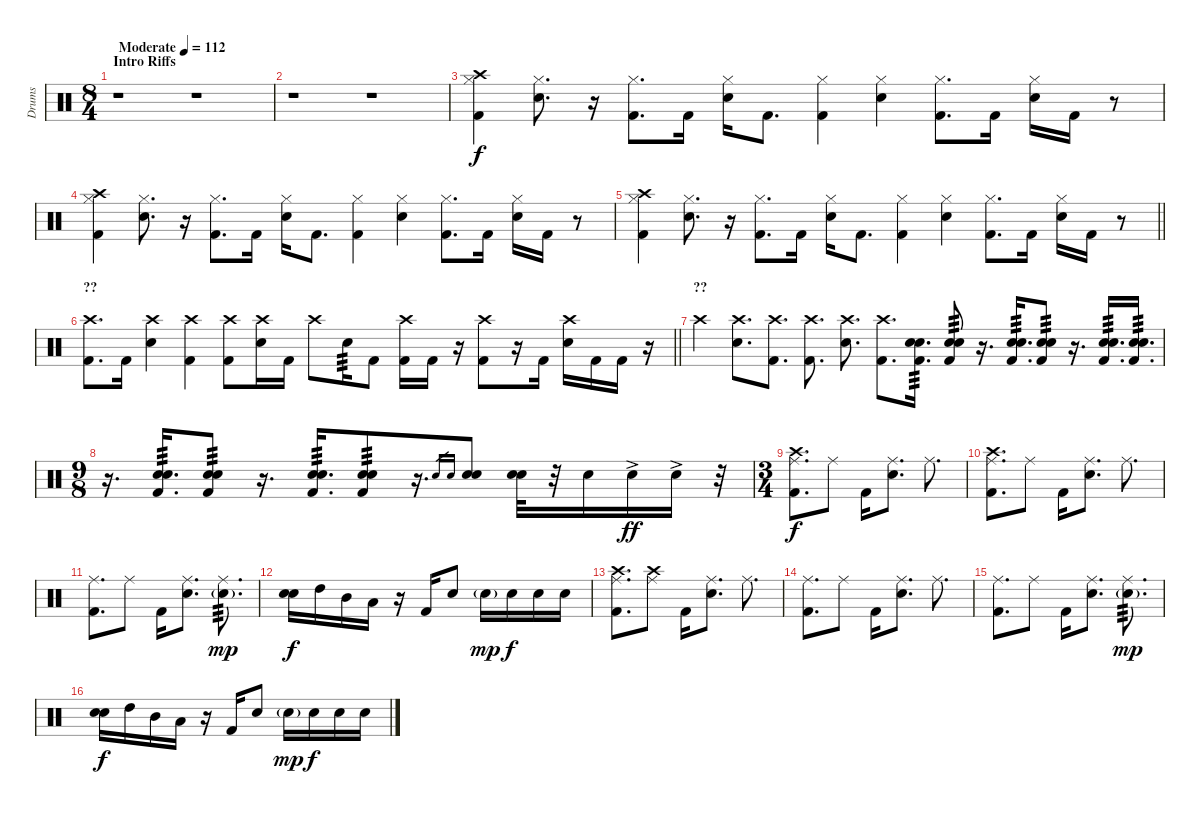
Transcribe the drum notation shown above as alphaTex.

\track ("Drums" "Drums") {instrument percussion}
\staff {score}
\articulation defaults
\ts (8 4)
\section ("" "Intro Riffs")
\tempo (112 "Moderate")
\clef neutral
\ks c
r.1{dy f} r.1 |
r.1 r.1 |
("Hi-Hat (closed)" "Crash high (hit)" "Kick (hit) 2").4 ("Hi-Hat (closed)" "Electric Snare (hit)").8{d} r.16 ("Hi-Hat (closed)" "Kick (hit) 2").8{d} "Kick (hit) 2".16 ("Hi-Hat (closed)" "Electric Snare (hit)").16 "Kick (hit) 2".8{d} ("Hi-Hat (closed)" "Kick (hit) 2").4 ("Hi-Hat (closed)" "Electric Snare (hit)").4 ("Hi-Hat (closed)" "Kick (hit) 2").8{d} "Kick (hit) 2".16 ("Hi-Hat (closed)" "Electric Snare (hit)").16 "Kick (hit) 2".16 r.8 |
("Hi-Hat (closed)" "Crash high (hit)" "Kick (hit) 2").4 ("Hi-Hat (closed)" "Electric Snare (hit)").8{d} r.16 ("Hi-Hat (closed)" "Kick (hit) 2").8{d} "Kick (hit) 2".16 ("Hi-Hat (closed)" "Electric Snare (hit)").16 "Kick (hit) 2".8{d} ("Hi-Hat (closed)" "Kick (hit) 2").4 ("Hi-Hat (closed)" "Electric Snare (hit)").4 ("Hi-Hat (closed)" "Kick (hit) 2").8{d} "Kick (hit) 2".16 ("Hi-Hat (closed)" "Electric Snare (hit)").16 "Kick (hit) 2".16 r.8 |
\barLineRight lightlight
("Hi-Hat (closed)" "Crash high (hit)" "Kick (hit) 2").4 ("Hi-Hat (closed)" "Electric Snare (hit)").8{d} r.16 ("Hi-Hat (closed)" "Kick (hit) 2").8{d} "Kick (hit) 2".16 ("Hi-Hat (closed)" "Electric Snare (hit)").16 "Kick (hit) 2".8{d} ("Hi-Hat (closed)" "Kick (hit) 2").4 ("Hi-Hat (closed)" "Electric Snare (hit)").4 ("Hi-Hat (closed)" "Kick (hit) 2").8{d} "Kick (hit) 2".16 ("Hi-Hat (closed)" "Electric Snare (hit)").16 "Kick (hit) 2".16 r.8 |
\section ("" "??")
\barLineRight lightlight
("Crash high (hit)" "Kick (hit) 2").8{d} "Kick (hit) 2".16 ("Crash high (hit)" "Electric Snare (hit)").4 ("Crash high (hit)" "Kick (hit) 2").4 ("Crash high (hit)" "Kick (hit) 2").8 ("Crash high (hit)" "Electric Snare (hit)").16 "Kick (hit) 2".16 "Crash high (hit)".8 "Electric Snare (hit)".16{tp 3} "Kick (hit) 2".8 ("Crash high (hit)" "Kick (hit) 2").16 "Kick (hit) 2".16 r.16 ("Crash high (hit)" "Kick (hit) 2").8 r.16 "Kick (hit) 2".16 ("Crash high (hit)" "Electric Snare (hit)").16 "Kick (hit) 2".16 "Kick (hit) 2".16 r.16 |
\section ("" "??")
"Crash high (hit)".4 ("Crash high (hit)" "Electric Snare (hit)").8{d} ("Crash high (hit)" "Kick (hit) 2").8{d} ("Crash high (hit)" "Kick (hit) 2").8{d} ("Crash high (hit)" "Electric Snare (hit)").8{d} ("Crash high (hit)" "Kick (hit) 2").8{d} ("Electric Snare (hit)" "Electric Snare (hit)" "Kick (hit) 2").16{d tp 3} ("Electric Snare (hit)" "Electric Snare (hit)" "Kick (hit) 2").8{tp 3} r.16{d} ("Electric Snare (hit)" "Electric Snare (hit)" "Kick (hit) 2").16{d tp 3} ("Electric Snare (hit)" "Electric Snare (hit)" "Kick (hit) 2").8{tp 3} r.16{d} ("Electric Snare (hit)" "Electric Snare (hit)" "Kick (hit) 2").16{d tp 3} ("Electric Snare (hit)" "Electric Snare (hit)" "Kick (hit) 2").16{d tp 3} |
\ts (9 8)
r.16{d} ("Electric Snare (hit)" "Electric Snare (hit)" "Kick (hit) 2").16{d tp 3} ("Electric Snare (hit)" "Electric Snare (hit)" "Kick (hit) 2").8{tp 3} r.16{d} ("Electric Snare (hit)" "Electric Snare (hit)" "Kick (hit) 2").16{d tp 3} ("Electric Snare (hit)" "Electric Snare (hit)" "Kick (hit) 2").8{tp 3} r.16{d} "Electric Snare (hit)".16{gr} "Electric Snare (hit)".16{gr} ("Electric Snare (hit)" "Electric Snare (hit)").8 ("Electric Snare (hit)" "Electric Snare (hit)").32 r.32 "Electric Snare (hit)".16 "Electric Snare (hit)"{ac}.16{dy ff} "Electric Snare (hit)"{ac}.16 r.32 |
\ts (3 4)
("Ride (middle)" "Crash high (hit)" "Kick (hit) 2").8{d dy f} "Ride (middle)".8 "Kick (hit) 2".16 ("Ride (middle)" "Electric Snare (hit)").8{d} "Ride (middle)".8{d} |
("Ride (middle)" "Crash high (hit)" "Kick (hit) 2").8{d} "Ride (middle)".8 "Kick (hit) 2".16 ("Ride (middle)" "Electric Snare (hit)").8{d} "Ride (middle)".8{d} |
("Ride (middle)" "Kick (hit) 2").8{d} "Ride (middle)".8 "Kick (hit) 2".16 ("Ride (middle)" "Electric Snare (hit)").8{d} ("Ride (middle)" "Electric Snare (hit)"{g}).8{d tp 3 dy mp} |
("Electric Snare (hit)" "Electric Snare (hit)").16{dy f} "High Tom (hit)".16 "Mid Tom (hit)".16 "Low Tom (hit)".16 r.16 "Kick (hit) 2".16 "Electric Snare (hit)".8 "Electric Snare (hit)"{g}.16{dy mp} "Electric Snare (hit)".16{dy f} "Electric Snare (hit)".16 "Electric Snare (hit)".16 |
("Ride (middle)" "Crash high (hit)" "Kick (hit) 2").8{d} ("Ride (middle)" "Crash high (hit)").8 "Kick (hit) 2".16 ("Ride (middle)" "Electric Snare (hit)").8{d} "Ride (middle)".8{d} |
("Ride (middle)" "Kick (hit) 2").8{d} "Ride (middle)".8 "Kick (hit) 2".16 ("Ride (middle)" "Electric Snare (hit)").8{d} "Ride (middle)".8{d} |
("Ride (middle)" "Kick (hit) 2").8{d} "Ride (middle)".8 "Kick (hit) 2".16 ("Ride (middle)" "Electric Snare (hit)").8{d} ("Ride (middle)" "Electric Snare (hit)"{g}).8{d tp 3 dy mp} |
("Electric Snare (hit)" "Electric Snare (hit)").16{dy f} "High Tom (hit)".16 "Mid Tom (hit)".16 "Low Tom (hit)".16 r.16 "Kick (hit) 2".16 "Electric Snare (hit)".8 "Electric Snare (hit)"{g}.16{dy mp} "Electric Snare (hit)".16{dy f} "Electric Snare (hit)".16 "Electric Snare (hit)".16
